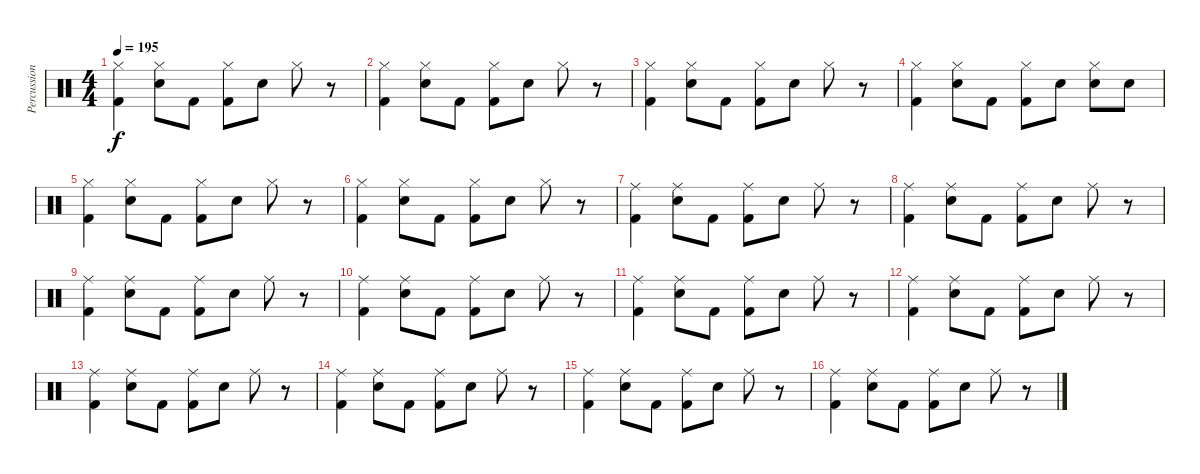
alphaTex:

\track ("Percussion" "Percussion") {instrument percussion}
\staff {score}
\articulation defaults
\ts (4 4)
\tempo 195
\clef neutral
\ks c
("Hi-Hat (closed)" "Kick (hit) 2").4{dy f} ("Hi-Hat (closed)" "Snare (hit) 2").8 "Kick (hit) 2".8 ("Hi-Hat (closed)" "Kick (hit) 2").8 "Snare (hit) 2".8 "Hi-Hat (closed)".8 r.8 |
("Hi-Hat (closed)" "Kick (hit) 2").4 ("Hi-Hat (closed)" "Snare (hit) 2").8 "Kick (hit) 2".8 ("Hi-Hat (closed)" "Kick (hit) 2").8 "Snare (hit) 2".8 "Hi-Hat (closed)".8 r.8 |
("Hi-Hat (closed)" "Kick (hit) 2").4 ("Hi-Hat (closed)" "Snare (hit) 2").8 "Kick (hit) 2".8 ("Hi-Hat (closed)" "Kick (hit) 2").8 "Snare (hit) 2".8 "Hi-Hat (closed)".8 r.8 |
("Hi-Hat (closed)" "Kick (hit) 2").4 ("Hi-Hat (closed)" "Snare (hit) 2").8 "Kick (hit) 2".8 ("Hi-Hat (closed)" "Kick (hit) 2").8 "Snare (hit) 2".8 ("Hi-Hat (closed)" "Snare (hit) 2").8 "Snare (hit) 2".8 |
("Hi-Hat (closed)" "Kick (hit) 2").4 ("Hi-Hat (closed)" "Snare (hit) 2").8 "Kick (hit) 2".8 ("Hi-Hat (closed)" "Kick (hit) 2").8 "Snare (hit) 2".8 "Hi-Hat (closed)".8 r.8 |
("Hi-Hat (closed)" "Kick (hit) 2").4 ("Hi-Hat (closed)" "Snare (hit) 2").8 "Kick (hit) 2".8 ("Hi-Hat (closed)" "Kick (hit) 2").8 "Snare (hit) 2".8 "Hi-Hat (closed)".8 r.8 |
("Ride (middle)" "Kick (hit) 2").4 ("Ride (middle)" "Snare (hit) 2").8 "Kick (hit) 2".8 ("Ride (middle)" "Kick (hit) 2").8 "Snare (hit) 2".8 "Ride (middle)".8 r.8 |
("Ride (middle)" "Kick (hit) 2").4 ("Ride (middle)" "Snare (hit) 2").8 "Kick (hit) 2".8 ("Ride (middle)" "Kick (hit) 2").8 "Snare (hit) 2".8 "Ride (middle)".8 r.8 |
("Ride (middle)" "Kick (hit) 2").4 ("Ride (middle)" "Snare (hit) 2").8 "Kick (hit) 2".8 ("Ride (middle)" "Kick (hit) 2").8 "Snare (hit) 2".8 "Ride (middle)".8 r.8 |
("Ride (middle)" "Kick (hit) 2").4 ("Ride (middle)" "Snare (hit) 2").8 "Kick (hit) 2".8 ("Ride (middle)" "Kick (hit) 2").8 "Snare (hit) 2".8 "Ride (middle)".8 r.8 |
("Ride (middle)" "Kick (hit) 2").4 ("Ride (middle)" "Snare (hit) 2").8 "Kick (hit) 2".8 ("Ride (middle)" "Kick (hit) 2").8 "Snare (hit) 2".8 "Ride (middle)".8 r.8 |
("Ride (middle)" "Kick (hit) 2").4 ("Ride (middle)" "Snare (hit) 2").8 "Kick (hit) 2".8 ("Ride (middle)" "Kick (hit) 2").8 "Snare (hit) 2".8 "Ride (middle)".8 r.8 |
("Ride (middle)" "Kick (hit) 2").4 ("Ride (middle)" "Snare (hit) 2").8 "Kick (hit) 2".8 ("Ride (middle)" "Kick (hit) 2").8 "Snare (hit) 2".8 "Ride (middle)".8 r.8 |
("Ride (middle)" "Kick (hit) 2").4 ("Ride (middle)" "Snare (hit) 2").8 "Kick (hit) 2".8 ("Ride (middle)" "Kick (hit) 2").8 "Snare (hit) 2".8 "Ride (middle)".8 r.8 |
("Ride (middle)" "Kick (hit) 2").4 ("Ride (middle)" "Snare (hit) 2").8 "Kick (hit) 2".8 ("Ride (middle)" "Kick (hit) 2").8 "Snare (hit) 2".8 "Ride (middle)".8 r.8 |
("Ride (middle)" "Kick (hit) 2").4 ("Ride (middle)" "Snare (hit) 2").8 "Kick (hit) 2".8 ("Ride (middle)" "Kick (hit) 2").8 "Snare (hit) 2".8 "Ride (middle)".8 r.8
